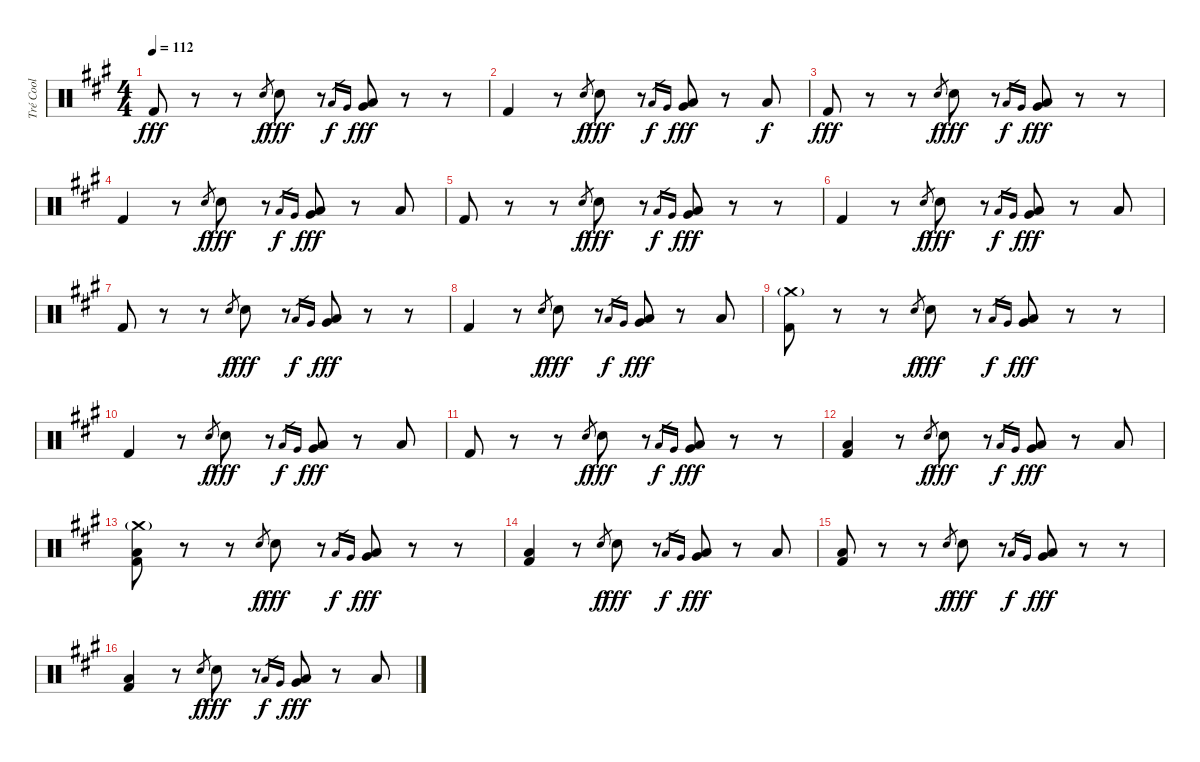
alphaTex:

\track ("Tré Cool" "Tré Cool") {instrument percussion}
\staff {score}
\articulation defaults
\ts (4 4)
\tempo 112
\clef neutral
\ks a "Kick (hit) 2".8{dy fff}
r.8 r.8 "Electric Snare (hit)".8{gr dy f} "Electric Snare (hit)".8{dy fff} r.8 "Low Floor Tom (hit)".16{gr dy f} "Very Low Tom (hit)".16{gr} ("Low Floor Tom (hit)" "Very Low Tom (hit)").8{dy fff} r.8 r.8 |
"Kick (hit) 2".4 r.8 "Electric Snare (hit)".8{gr dy f} "Electric Snare (hit)".8{dy fff} r.8 "Low Floor Tom (hit)".16{gr dy f} "Very Low Tom (hit)".16{gr} ("Low Floor Tom (hit)" "Very Low Tom (hit)").8{dy fff} r.8 "Low Tom (hit)".8{dy f} |
"Kick (hit) 2".8{dy fff} r.8 r.8 "Electric Snare (hit)".8{gr dy f} "Electric Snare (hit)".8{dy fff} r.8 "Low Floor Tom (hit)".16{gr dy f} "Very Low Tom (hit)".16{gr} ("Low Floor Tom (hit)" "Very Low Tom (hit)").8{dy fff} r.8 r.8 |
"Kick (hit) 2".4 r.8 "Electric Snare (hit)".8{gr dy f} "Electric Snare (hit)".8{dy fff} r.8 "Low Floor Tom (hit)".16{gr dy f} "Very Low Tom (hit)".16{gr} ("Low Floor Tom (hit)" "Very Low Tom (hit)").8{dy fff} r.8 "Low Tom (hit)".8 |
"Kick (hit) 2".8 r.8 r.8 "Electric Snare (hit)".8{gr dy f} "Electric Snare (hit)".8{dy fff} r.8 "Low Floor Tom (hit)".16{gr dy f} "Very Low Tom (hit)".16{gr} ("Low Floor Tom (hit)" "Very Low Tom (hit)").8{dy fff} r.8 r.8 |
"Kick (hit) 2".4 r.8 "Electric Snare (hit)".8{gr dy f} "Electric Snare (hit)".8{dy fff} r.8 "Low Floor Tom (hit)".16{gr dy f} "Very Low Tom (hit)".16{gr} ("Low Floor Tom (hit)" "Very Low Tom (hit)").8{dy fff} r.8 "Low Tom (hit)".8 |
"Kick (hit) 2".8 r.8 r.8 "Electric Snare (hit)".8{gr dy f} "Electric Snare (hit)".8{dy fff} r.8 "Low Floor Tom (hit)".16{gr dy f} "Very Low Tom (hit)".16{gr} ("Low Floor Tom (hit)" "Very Low Tom (hit)").8{dy fff} r.8 r.8 |
"Kick (hit) 2".4 r.8 "Electric Snare (hit)".8{gr dy f} "Electric Snare (hit)".8{dy fff} r.8 "Low Floor Tom (hit)".16{gr dy f} "Very Low Tom (hit)".16{gr} ("Low Floor Tom (hit)" "Very Low Tom (hit)").8{dy fff} r.8 "Low Tom (hit)".8 |
("Crash medium (hit)"{g} "Kick (hit) 2").8 r.8 r.8 "Electric Snare (hit)".8{gr dy f} "Electric Snare (hit)".8{dy fff} r.8 "Low Floor Tom (hit)".16{gr dy f} "Very Low Tom (hit)".16{gr} ("Low Floor Tom (hit)" "Very Low Tom (hit)").8{dy fff} r.8 r.8 |
"Kick (hit) 2".4 r.8 "Electric Snare (hit)".8{gr dy f} "Electric Snare (hit)".8{dy fff} r.8 "Low Floor Tom (hit)".16{gr dy f} "Very Low Tom (hit)".16{gr} ("Low Floor Tom (hit)" "Very Low Tom (hit)").8{dy fff} r.8 "Low Tom (hit)".8 |
"Kick (hit) 2".8 r.8 r.8 "Electric Snare (hit)".8{gr dy f} "Electric Snare (hit)".8{dy fff} r.8 "Low Floor Tom (hit)".16{gr dy f} "Very Low Tom (hit)".16{gr} ("Low Floor Tom (hit)" "Very Low Tom (hit)").8{dy fff} r.8 r.8 |
("Low Floor Tom (hit)" "Kick (hit) 2").4 r.8 "Electric Snare (hit)".8{gr dy f} "Electric Snare (hit)".8{dy fff} r.8 "Low Floor Tom (hit)".16{gr dy f} "Very Low Tom (hit)".16{gr} ("Low Floor Tom (hit)" "Very Low Tom (hit)").8{dy fff} r.8 "Low Tom (hit)".8 |
("Crash medium (hit)"{g} "Low Floor Tom (hit)" "Kick (hit) 2").8 r.8 r.8 "Electric Snare (hit)".8{gr dy f} "Electric Snare (hit)".8{dy fff} r.8 "Low Floor Tom (hit)".16{gr dy f} "Very Low Tom (hit)".16{gr} ("Low Floor Tom (hit)" "Very Low Tom (hit)").8{dy fff} r.8 r.8 |
("Low Floor Tom (hit)" "Kick (hit) 2").4 r.8 "Electric Snare (hit)".8{gr dy f} "Electric Snare (hit)".8{dy fff} r.8 "Low Floor Tom (hit)".16{gr dy f} "Very Low Tom (hit)".16{gr} ("Low Floor Tom (hit)" "Very Low Tom (hit)").8{dy fff} r.8 "Low Tom (hit)".8 |
("Low Floor Tom (hit)" "Kick (hit) 2").8 r.8 r.8 "Electric Snare (hit)".8{gr dy f} "Electric Snare (hit)".8{dy fff} r.8 "Low Floor Tom (hit)".16{gr dy f} "Very Low Tom (hit)".16{gr} ("Low Floor Tom (hit)" "Very Low Tom (hit)").8{dy fff} r.8 r.8 |
("Low Floor Tom (hit)" "Kick (hit) 2").4 r.8 "Electric Snare (hit)".8{gr dy f} "Electric Snare (hit)".8{dy fff} r.8 "Low Floor Tom (hit)".16{gr dy f} "Very Low Tom (hit)".16{gr} ("Low Floor Tom (hit)" "Very Low Tom (hit)").8{dy fff} r.8 "Low Tom (hit)".8
